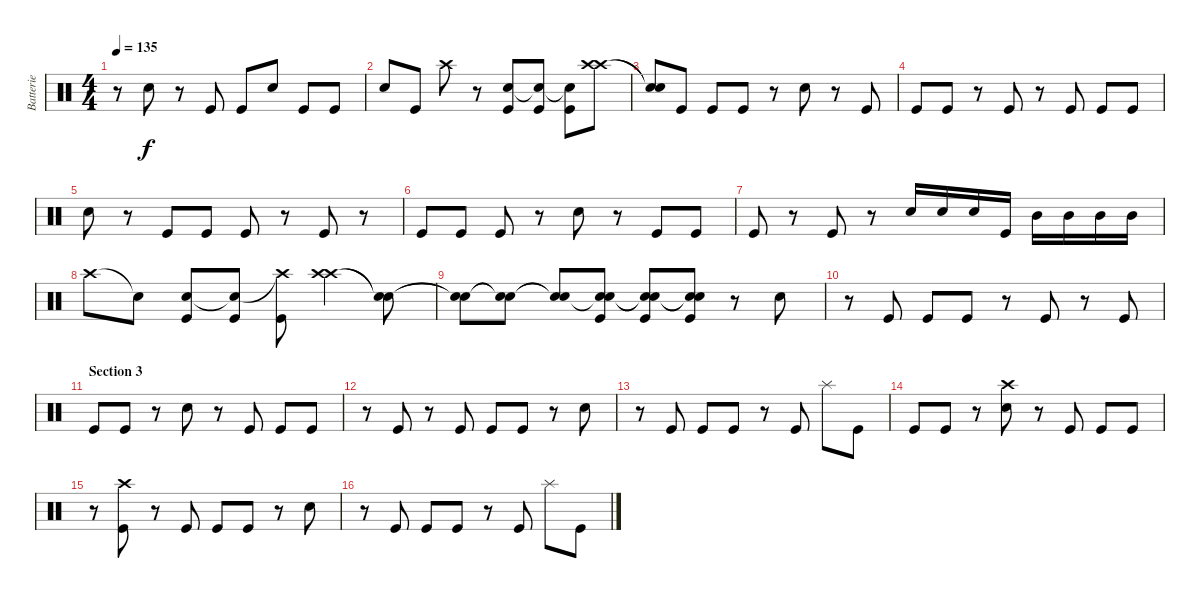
\track ("Batterie" "Batterie") {instrument percussion}
\staff {score}
\articulation defaults
\ts (4 4)
\tempo 135
\clef neutral
\ks c
r.8{dy f} "Electric Snare (hit)".8 r.8 "Kick (hit)".8 "Kick (hit)".8 "Electric Snare (hit)".8 "Kick (hit)".8 "Kick (hit)".8 |
"Electric Snare (hit)".8 "Kick (hit)".8 "Crash high (hit)".8 r.8 ("Kick (hit)" "Snare (hit)").8 ("Kick (hit)" "Snare (hit)"{t}).8 ("Kick (hit)" "Snare (hit)"{t}).8 ("Crash high (hit)" "Crash high (hit)").8 |
("Snare (hit)"{t} "Snare (hit)"{t}).8 "Kick (hit)".8 "Kick (hit)".8 "Kick (hit)".8 r.8 "Electric Snare (hit)".8 r.8 "Kick (hit)".8 |
"Kick (hit)".8 "Kick (hit)".8 r.8 "Kick (hit)".8 r.8 "Kick (hit)".8 "Kick (hit)".8 "Kick (hit)".8 |
"Electric Snare (hit)".8 r.8 "Kick (hit)".8 "Kick (hit)".8 "Kick (hit)".8 r.8 "Kick (hit)".8 r.8 |
"Kick (hit)".8 "Kick (hit)".8 "Kick (hit)".8 r.8 "Electric Snare (hit)".8 r.8 "Kick (hit)".8 "Kick (hit)".8 |
"Kick (hit)".8 r.8 "Kick (hit)".8 r.8 "Electric Snare (hit)".16 "Electric Snare (hit)".16 "Electric Snare (hit)".16 "Kick (hit)".16 "Mid Tom (hit)".16 "Mid Tom (hit)".16 "Mid Tom (hit)".16 "Mid Tom (hit)".16 |
"Crash high (hit)".8 "Snare (hit)"{t}.8 ("Kick (hit)" "Snare (hit)").8 ("Kick (hit)" "Snare (hit)"{t}).8 ("Kick (hit)" "Crash high (hit)"{t}).8 ("Crash high (hit)" "Crash high (hit)").4 ("Snare (hit)"{t} "Snare (hit)"{t}).8 |
\section ("" "")
("Snare (hit)"{t} "Snare (hit)"{t}).8 ("Snare (hit)"{t} "Snare (hit)"{t}).8 ("Snare (hit)"{t} "Snare (hit)"{t}).8 ("Kick (hit)" "Snare (hit)"{t} "Snare (hit)").8 ("Kick (hit)" "Snare (hit)"{t} "Snare (hit)"{t}).8 ("Kick (hit)" "Snare (hit)"{t} "Snare (hit)"{t}).8 r.8 "Electric Snare (hit)".8 |
\section ("" "")
r.8 "Kick (hit)".8 "Kick (hit)".8 "Kick (hit)".8 r.8 "Kick (hit)".8 r.8 "Kick (hit)".8 |
\section ("" "Section 3")
"Kick (hit)".8 "Kick (hit)".8 r.8 "Electric Snare (hit)".8 r.8 "Kick (hit)".8 "Kick (hit)".8 "Kick (hit)".8 |
r.8 "Kick (hit)".8 r.8 "Kick (hit)".8 "Kick (hit)".8 "Kick (hit)".8 r.8 "Electric Snare (hit)".8 |
r.8 "Kick (hit)".8 "Kick (hit)".8 "Kick (hit)".8 r.8 "Kick (hit)".8 "Splash (hit)".8 "Kick (hit)".8 |
"Kick (hit)".8 "Kick (hit)".8 r.8 ("Electric Snare (hit)" "Crash high (hit)").8 r.8 "Kick (hit)".8 "Kick (hit)".8 "Kick (hit)".8 |
r.8 ("Kick (hit)" "Crash high (hit)").8 r.8 "Kick (hit)".8 "Kick (hit)".8 "Kick (hit)".8 r.8 "Electric Snare (hit)".8 |
r.8 "Kick (hit)".8 "Kick (hit)".8 "Kick (hit)".8 r.8 "Kick (hit)".8 "Splash (hit)".8 "Kick (hit)".8
